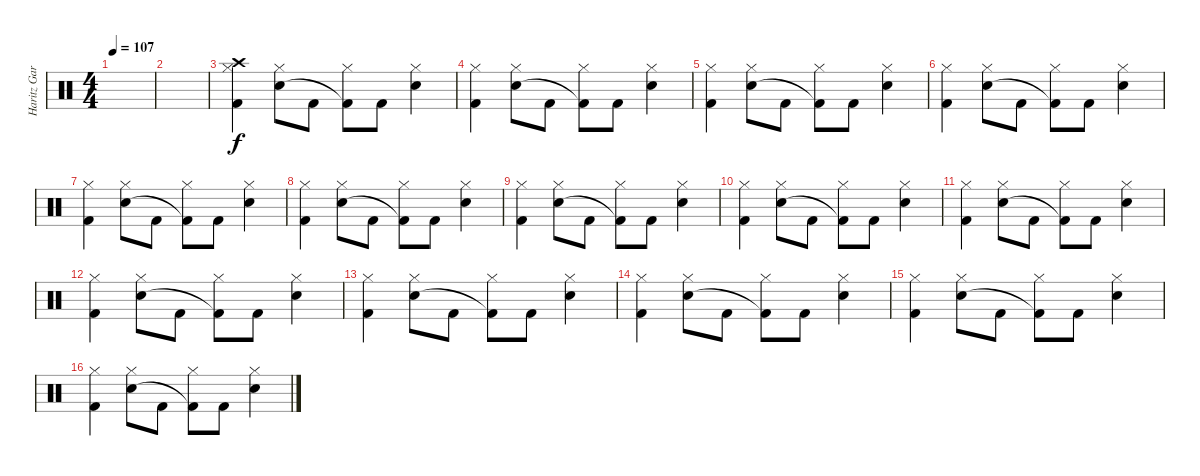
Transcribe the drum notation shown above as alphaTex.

\track ("Haritz Gardo" "Haritz Gar") {instrument percussion}
\staff {score}
\articulation defaults
\ts (4 4)
\tempo 107
\clef neutral
\ks c
|
|
("Crash high (hit)" "Hi-Hat (closed)" "Kick (hit) 2").4 ("Hi-Hat (closed)" "Electric Snare (hit)").8 "Kick (hit) 2".8 ("Hi-Hat (closed)" "Kick (hit) 2"{t}).8 "Kick (hit) 2".8 ("Hi-Hat (closed)" "Electric Snare (hit)").4 |
("Hi-Hat (closed)" "Kick (hit) 2").4 ("Hi-Hat (closed)" "Electric Snare (hit)").8 "Kick (hit) 2".8 ("Hi-Hat (closed)" "Kick (hit) 2"{t}).8 "Kick (hit) 2".8 ("Hi-Hat (closed)" "Electric Snare (hit)").4 |
("Hi-Hat (closed)" "Kick (hit) 2").4 ("Hi-Hat (closed)" "Electric Snare (hit)").8 "Kick (hit) 2".8 ("Hi-Hat (closed)" "Kick (hit) 2"{t}).8 "Kick (hit) 2".8 ("Hi-Hat (closed)" "Electric Snare (hit)").4 |
("Hi-Hat (closed)" "Kick (hit) 2").4 ("Hi-Hat (closed)" "Electric Snare (hit)").8 "Kick (hit) 2".8 ("Hi-Hat (closed)" "Kick (hit) 2"{t}).8 "Kick (hit) 2".8 ("Hi-Hat (closed)" "Electric Snare (hit)").4 |
("Hi-Hat (closed)" "Kick (hit) 2").4 ("Hi-Hat (closed)" "Electric Snare (hit)").8 "Kick (hit) 2".8 ("Hi-Hat (closed)" "Kick (hit) 2"{t}).8 "Kick (hit) 2".8 ("Hi-Hat (closed)" "Electric Snare (hit)").4 |
("Hi-Hat (closed)" "Kick (hit) 2").4 ("Hi-Hat (closed)" "Electric Snare (hit)").8 "Kick (hit) 2".8 ("Hi-Hat (closed)" "Kick (hit) 2"{t}).8 "Kick (hit) 2".8 ("Hi-Hat (closed)" "Electric Snare (hit)").4 |
("Hi-Hat (closed)" "Kick (hit) 2").4 ("Hi-Hat (closed)" "Electric Snare (hit)").8 "Kick (hit) 2".8 ("Hi-Hat (closed)" "Kick (hit) 2"{t}).8 "Kick (hit) 2".8 ("Hi-Hat (closed)" "Electric Snare (hit)").4 |
("Hi-Hat (closed)" "Kick (hit) 2").4 ("Hi-Hat (closed)" "Electric Snare (hit)").8 "Kick (hit) 2".8 ("Hi-Hat (closed)" "Kick (hit) 2"{t}).8 "Kick (hit) 2".8 ("Hi-Hat (closed)" "Electric Snare (hit)").4 |
("Hi-Hat (closed)" "Kick (hit) 2").4 ("Hi-Hat (closed)" "Electric Snare (hit)").8 "Kick (hit) 2".8 ("Hi-Hat (closed)" "Kick (hit) 2"{t}).8 "Kick (hit) 2".8 ("Hi-Hat (closed)" "Electric Snare (hit)").4 |
("Hi-Hat (closed)" "Kick (hit) 2").4 ("Hi-Hat (closed)" "Electric Snare (hit)").8 "Kick (hit) 2".8 ("Hi-Hat (closed)" "Kick (hit) 2"{t}).8 "Kick (hit) 2".8 ("Hi-Hat (closed)" "Electric Snare (hit)").4 |
("Hi-Hat (closed)" "Kick (hit) 2").4 ("Hi-Hat (closed)" "Electric Snare (hit)").8 "Kick (hit) 2".8 ("Hi-Hat (closed)" "Kick (hit) 2"{t}).8 "Kick (hit) 2".8 ("Hi-Hat (closed)" "Electric Snare (hit)").4 |
("Hi-Hat (closed)" "Kick (hit) 2").4 ("Hi-Hat (closed)" "Electric Snare (hit)").8 "Kick (hit) 2".8 ("Hi-Hat (closed)" "Kick (hit) 2"{t}).8 "Kick (hit) 2".8 ("Hi-Hat (closed)" "Electric Snare (hit)").4 |
("Hi-Hat (closed)" "Kick (hit) 2").4 ("Hi-Hat (closed)" "Electric Snare (hit)").8 "Kick (hit) 2".8 ("Hi-Hat (closed)" "Kick (hit) 2"{t}).8 "Kick (hit) 2".8 ("Hi-Hat (closed)" "Electric Snare (hit)").4 |
("Hi-Hat (closed)" "Kick (hit) 2").4 ("Hi-Hat (closed)" "Electric Snare (hit)").8 "Kick (hit) 2".8 ("Hi-Hat (closed)" "Kick (hit) 2"{t}).8 "Kick (hit) 2".8 ("Hi-Hat (closed)" "Electric Snare (hit)").4
